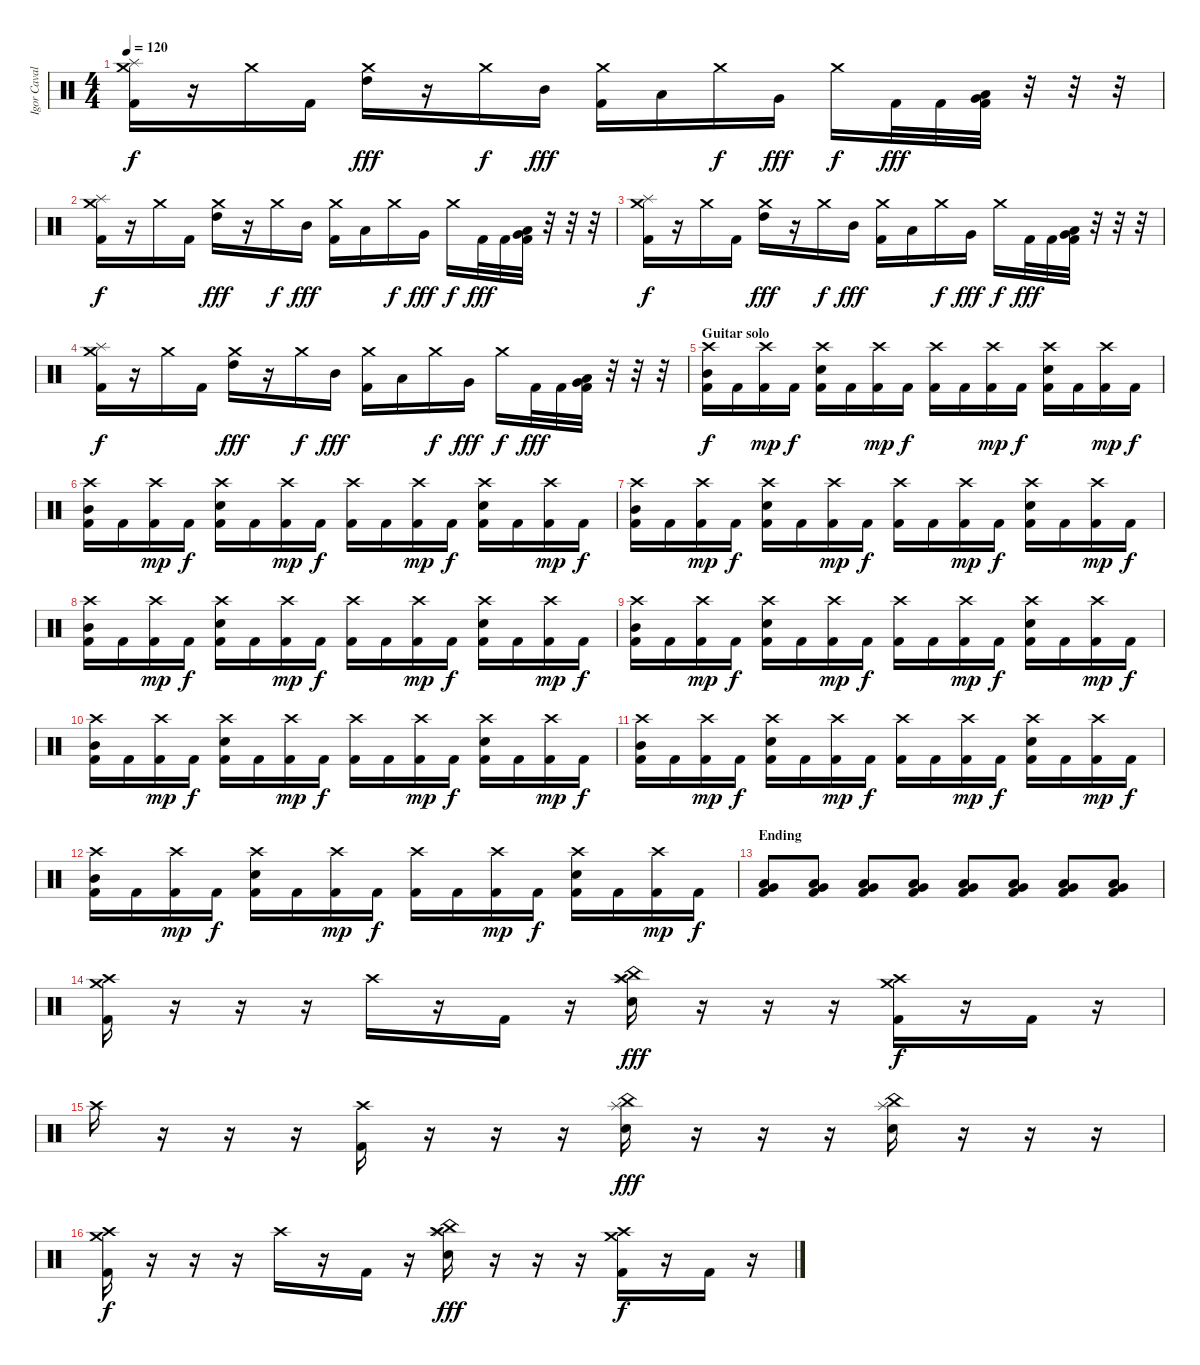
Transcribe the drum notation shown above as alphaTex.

\track ("Igor Cavalera" "Igor Caval") {instrument percussion}
\staff {score}
\articulation defaults
\ts (4 4)
\tempo 120
\clef neutral
\ks c
("Crash medium (hit)" "Kick (hit) 2" "Splash (hit)").16{dy f} r.16 "Crash medium (hit)".16 "Kick (hit) 2".16 ("Crash medium (hit)" "High Tom (hit)").16{dy fff} r.16 "Crash medium (hit)".16{dy f} "Mid Tom (hit)".16{dy fff} ("Crash medium (hit)" "Kick (hit) 2").16 "Low Tom (hit)".16 "Crash medium (hit)".16{dy f} "Very Low Tom (hit)".16{dy fff} "Crash medium (hit)".16{dy f} "Kick (hit) 2".32{dy fff} "Kick (hit) 2".32 ("Low Floor Tom (hit)" "Very Low Tom (hit)" "Kick (hit) 2").32 r.32 r.32 r.32 |
("Crash medium (hit)" "Kick (hit) 2" "Splash (hit)").16{dy f} r.16 "Crash medium (hit)".16 "Kick (hit) 2".16 ("Crash medium (hit)" "High Tom (hit)").16{dy fff} r.16 "Crash medium (hit)".16{dy f} "Mid Tom (hit)".16{dy fff} ("Crash medium (hit)" "Kick (hit) 2").16 "Low Tom (hit)".16 "Crash medium (hit)".16{dy f} "Very Low Tom (hit)".16{dy fff} "Crash medium (hit)".16{dy f} "Kick (hit) 2".32{dy fff} "Kick (hit) 2".32 ("Low Floor Tom (hit)" "Very Low Tom (hit)" "Kick (hit) 2").32 r.32 r.32 r.32 |
("Crash medium (hit)" "Kick (hit) 2" "Splash (hit)").16{dy f} r.16 "Crash medium (hit)".16 "Kick (hit) 2".16 ("Crash medium (hit)" "High Tom (hit)").16{dy fff} r.16 "Crash medium (hit)".16{dy f} "Mid Tom (hit)".16{dy fff} ("Crash medium (hit)" "Kick (hit) 2").16 "Low Tom (hit)".16 "Crash medium (hit)".16{dy f} "Very Low Tom (hit)".16{dy fff} "Crash medium (hit)".16{dy f} "Kick (hit) 2".32{dy fff} "Kick (hit) 2".32 ("Low Floor Tom (hit)" "Very Low Tom (hit)" "Kick (hit) 2").32 r.32 r.32 r.32 |
("Crash medium (hit)" "Kick (hit) 2" "Splash (hit)").16{dy f} r.16 "Crash medium (hit)".16 "Kick (hit) 2".16 ("Crash medium (hit)" "High Tom (hit)").16{dy fff} r.16 "Crash medium (hit)".16{dy f} "Mid Tom (hit)".16{dy fff} ("Crash medium (hit)" "Kick (hit) 2").16 "Low Tom (hit)".16 "Crash medium (hit)".16{dy f} "Very Low Tom (hit)".16{dy fff} "Crash medium (hit)".16{dy f} "Kick (hit) 2".32{dy fff} "Kick (hit) 2".32 ("Low Floor Tom (hit)" "Very Low Tom (hit)" "Kick (hit) 2").32 r.32 r.32 r.32 |
\section ("" "Guitar solo")
("Crash high (hit)" "Mid Tom (hit)" "Kick (hit) 2").16{dy f} "Kick (hit) 2".16 ("Crash high (hit)" "Kick (hit) 2").16{dy mp} "Kick (hit) 2".16{dy f} ("Crash high (hit)" "Electric Snare (hit)" "Kick (hit) 2").16 "Kick (hit) 2".16 ("Crash high (hit)" "Kick (hit) 2").16{dy mp} "Kick (hit) 2".16{dy f} ("Crash high (hit)" "Kick (hit) 2").16 "Kick (hit) 2".16 ("Crash high (hit)" "Kick (hit) 2").16{dy mp} "Kick (hit) 2".16{dy f} ("Crash high (hit)" "Electric Snare (hit)" "Kick (hit) 2").16 "Kick (hit) 2".16 ("Crash high (hit)" "Kick (hit) 2").16{dy mp} "Kick (hit) 2".16{dy f} |
("Crash high (hit)" "Mid Tom (hit)" "Kick (hit) 2").16 "Kick (hit) 2".16 ("Crash high (hit)" "Kick (hit) 2").16{dy mp} "Kick (hit) 2".16{dy f} ("Crash high (hit)" "Electric Snare (hit)" "Kick (hit) 2").16 "Kick (hit) 2".16 ("Crash high (hit)" "Kick (hit) 2").16{dy mp} "Kick (hit) 2".16{dy f} ("Crash high (hit)" "Kick (hit) 2").16 "Kick (hit) 2".16 ("Crash high (hit)" "Kick (hit) 2").16{dy mp} "Kick (hit) 2".16{dy f} ("Crash high (hit)" "Electric Snare (hit)" "Kick (hit) 2").16 "Kick (hit) 2".16 ("Crash high (hit)" "Kick (hit) 2").16{dy mp} "Kick (hit) 2".16{dy f} |
("Crash high (hit)" "Mid Tom (hit)" "Kick (hit) 2").16 "Kick (hit) 2".16 ("Crash high (hit)" "Kick (hit) 2").16{dy mp} "Kick (hit) 2".16{dy f} ("Crash high (hit)" "Electric Snare (hit)" "Kick (hit) 2").16 "Kick (hit) 2".16 ("Crash high (hit)" "Kick (hit) 2").16{dy mp} "Kick (hit) 2".16{dy f} ("Crash high (hit)" "Kick (hit) 2").16 "Kick (hit) 2".16 ("Crash high (hit)" "Kick (hit) 2").16{dy mp} "Kick (hit) 2".16{dy f} ("Crash high (hit)" "Electric Snare (hit)" "Kick (hit) 2").16 "Kick (hit) 2".16 ("Crash high (hit)" "Kick (hit) 2").16{dy mp} "Kick (hit) 2".16{dy f} |
("Crash high (hit)" "Mid Tom (hit)" "Kick (hit) 2").16 "Kick (hit) 2".16 ("Crash high (hit)" "Kick (hit) 2").16{dy mp} "Kick (hit) 2".16{dy f} ("Crash high (hit)" "Electric Snare (hit)" "Kick (hit) 2").16 "Kick (hit) 2".16 ("Crash high (hit)" "Kick (hit) 2").16{dy mp} "Kick (hit) 2".16{dy f} ("Crash high (hit)" "Kick (hit) 2").16 "Kick (hit) 2".16 ("Crash high (hit)" "Kick (hit) 2").16{dy mp} "Kick (hit) 2".16{dy f} ("Crash high (hit)" "Electric Snare (hit)" "Kick (hit) 2").16 "Kick (hit) 2".16 ("Crash high (hit)" "Kick (hit) 2").16{dy mp} "Kick (hit) 2".16{dy f} |
("Crash high (hit)" "Mid Tom (hit)" "Kick (hit) 2").16 "Kick (hit) 2".16 ("Crash high (hit)" "Kick (hit) 2").16{dy mp} "Kick (hit) 2".16{dy f} ("Crash high (hit)" "Electric Snare (hit)" "Kick (hit) 2").16 "Kick (hit) 2".16 ("Crash high (hit)" "Kick (hit) 2").16{dy mp} "Kick (hit) 2".16{dy f} ("Crash high (hit)" "Kick (hit) 2").16 "Kick (hit) 2".16 ("Crash high (hit)" "Kick (hit) 2").16{dy mp} "Kick (hit) 2".16{dy f} ("Crash high (hit)" "Electric Snare (hit)" "Kick (hit) 2").16 "Kick (hit) 2".16 ("Crash high (hit)" "Kick (hit) 2").16{dy mp} "Kick (hit) 2".16{dy f} |
("Crash high (hit)" "Mid Tom (hit)" "Kick (hit) 2").16 "Kick (hit) 2".16 ("Crash high (hit)" "Kick (hit) 2").16{dy mp} "Kick (hit) 2".16{dy f} ("Crash high (hit)" "Electric Snare (hit)" "Kick (hit) 2").16 "Kick (hit) 2".16 ("Crash high (hit)" "Kick (hit) 2").16{dy mp} "Kick (hit) 2".16{dy f} ("Crash high (hit)" "Kick (hit) 2").16 "Kick (hit) 2".16 ("Crash high (hit)" "Kick (hit) 2").16{dy mp} "Kick (hit) 2".16{dy f} ("Crash high (hit)" "Electric Snare (hit)" "Kick (hit) 2").16 "Kick (hit) 2".16 ("Crash high (hit)" "Kick (hit) 2").16{dy mp} "Kick (hit) 2".16{dy f} |
("Crash high (hit)" "Mid Tom (hit)" "Kick (hit) 2").16 "Kick (hit) 2".16 ("Crash high (hit)" "Kick (hit) 2").16{dy mp} "Kick (hit) 2".16{dy f} ("Crash high (hit)" "Electric Snare (hit)" "Kick (hit) 2").16 "Kick (hit) 2".16 ("Crash high (hit)" "Kick (hit) 2").16{dy mp} "Kick (hit) 2".16{dy f} ("Crash high (hit)" "Kick (hit) 2").16 "Kick (hit) 2".16 ("Crash high (hit)" "Kick (hit) 2").16{dy mp} "Kick (hit) 2".16{dy f} ("Crash high (hit)" "Electric Snare (hit)" "Kick (hit) 2").16 "Kick (hit) 2".16 ("Crash high (hit)" "Kick (hit) 2").16{dy mp} "Kick (hit) 2".16{dy f} |
("Crash high (hit)" "Mid Tom (hit)" "Kick (hit) 2").16 "Kick (hit) 2".16 ("Crash high (hit)" "Kick (hit) 2").16{dy mp} "Kick (hit) 2".16{dy f} ("Crash high (hit)" "Electric Snare (hit)" "Kick (hit) 2").16 "Kick (hit) 2".16 ("Crash high (hit)" "Kick (hit) 2").16{dy mp} "Kick (hit) 2".16{dy f} ("Crash high (hit)" "Kick (hit) 2").16 "Kick (hit) 2".16 ("Crash high (hit)" "Kick (hit) 2").16{dy mp} "Kick (hit) 2".16{dy f} ("Crash high (hit)" "Electric Snare (hit)" "Kick (hit) 2").16 "Kick (hit) 2".16 ("Crash high (hit)" "Kick (hit) 2").16{dy mp} "Kick (hit) 2".16{dy f} |
\section ("" "Ending")
("Low Tom (hit)" "Very Low Tom (hit)" "Kick (hit) 2").8 ("Low Tom (hit)" "Very Low Tom (hit)" "Kick (hit) 2").8 ("Low Tom (hit)" "Very Low Tom (hit)" "Kick (hit) 2").8 ("Low Tom (hit)" "Very Low Tom (hit)" "Kick (hit) 2").8 ("Low Tom (hit)" "Very Low Tom (hit)" "Kick (hit) 2").8 ("Low Tom (hit)" "Very Low Tom (hit)" "Kick (hit) 2").8 ("Low Tom (hit)" "Very Low Tom (hit)" "Kick (hit) 2").8 ("Low Tom (hit)" "Very Low Tom (hit)" "Kick (hit) 2").8 |
("Crash medium (hit)" "Crash high (hit)" "Kick (hit) 2").16 r.16 r.16 r.16 "Crash high (hit)".16 r.16 "Kick (hit) 2".16 r.16 ("China (hit)" "Splash (hit)" "Crash high (hit)" "Electric Snare (hit)").16{dy fff} r.16 r.16 r.16 ("Crash medium (hit)" "Kick (hit) 2" "Crash high (hit)").16{dy f} r.16 "Kick (hit) 2".16 r.16 |
"Crash high (hit)".16 r.16 r.16 r.16 ("Kick (hit) 2" "Crash high (hit)").16 r.16 r.16 r.16 ("China (hit)" "Splash (hit)" "Electric Snare (hit)").16{dy fff} r.16 r.16 r.16 ("China (hit)" "Splash (hit)" "Electric Snare (hit)").16 r.16 r.16 r.16 |
("Crash medium (hit)" "Crash high (hit)" "Kick (hit) 2").16{dy f} r.16 r.16 r.16 "Crash high (hit)".16 r.16 "Kick (hit) 2".16 r.16 ("China (hit)" "Splash (hit)" "Crash high (hit)" "Electric Snare (hit)").16{dy fff} r.16 r.16 r.16 ("Crash medium (hit)" "Kick (hit) 2" "Crash high (hit)").16{dy f} r.16 "Kick (hit) 2".16 r.16
